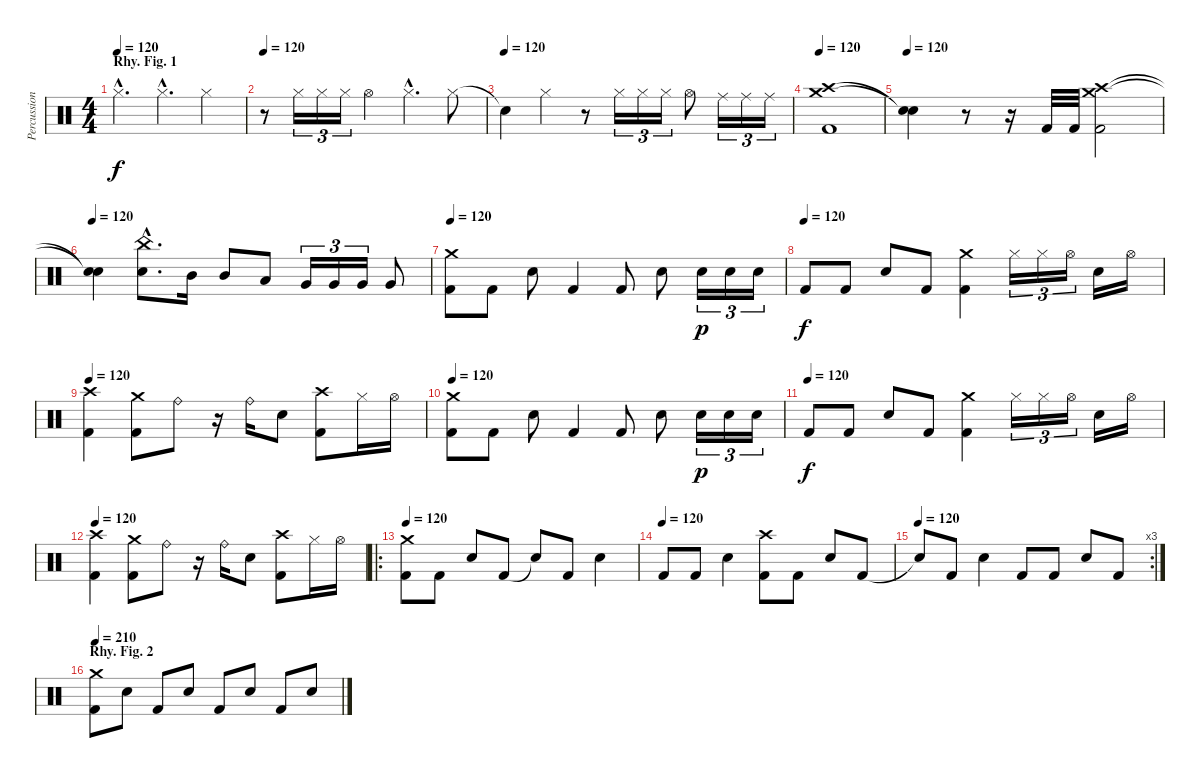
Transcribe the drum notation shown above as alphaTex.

\track ("Percussion" "Percussion") {instrument percussion}
\staff {score}
\articulation defaults
\ts (4 4)
\section ("" "Rhy. Fig. 1")
\tempo 120
\clef neutral
\ks c "Hi-Hat (closed)"{hac}.4{d dy f} "Hi-Hat (closed)"{hac}.4{d} "Hi-Hat (closed)".4
|
\tempo 120
r.8 "Hi-Hat (closed)".16{tu (3 2)} "Hi-Hat (closed)".16{tu (3 2)} "Hi-Hat (closed)".16{tu (3 2)} "Hi-Hat (open)".4 "Hi-Hat (closed)"{hac}.4{d} "Hi-Hat (closed)".8 |
\tempo (120)
"Snare (hit)"{t}.4 "Hi-Hat (closed)".4 r.8 "Hi-Hat (closed)".16{tu (3 2)} "Hi-Hat (closed)".16{tu (3 2)} "Hi-Hat (closed)".16{tu (3 2)} "Hi-Hat (open)".8 "Ride (middle)".16{tu (3 2)} "Ride (middle)".16{tu (3 2)} "Ride (middle)".16{tu (3 2)} |
\tempo 120
("Crash medium (hit)" "Crash high (hit)" "Kick (hit) 2").1 |
\tempo 120
("Snare (hit)"{t} "Snare (hit)"{t}).4 r.8 r.16 "Kick (hit) 2".32 "Kick (hit) 2".32 ("Crash medium (hit)" "Crash high (hit)" "Kick (hit) 2").2 |
\tempo 120
("Snare (hit)"{t} "Snare (hit)"{t}).4 ("China (hit)"{hac} "Snare (hit) 2"{hac}).8{d} "Mid Tom (hit)".16 "Mid Tom (hit)".8 "Low Tom (hit)".8 "Very Low Tom (hit)".16{tu (3 2)} "Very Low Tom (hit)".16{tu (3 2)} "Very Low Tom (hit)".16{tu (3 2)} "Very Low Tom (hit)".8 |
\tempo 120
("Crash medium (hit)" "Kick (hit) 2").8 "Kick (hit) 2".8 "Snare (hit) 2".8 "Kick (hit) 2".4 "Kick (hit) 2".8 "Snare (hit) 2".8 "Snare (hit) 2".16{tu (3 2) dy p} "Snare (hit) 2".16{tu (3 2)} "Snare (hit) 2".16{tu (3 2)} |
\tempo (120)
"Kick (hit) 2".8{dy f} "Kick (hit) 2".8 "Snare (hit) 2".8 "Kick (hit) 2".8 ("Crash medium (hit)" "Kick (hit) 2").4 "Hi-Hat (closed)".16{tu (3 2)} "Hi-Hat (closed)".16{tu (3 2)} "Hi-Hat (open)".16{tu (3 2)} "Snare (hit) 2".16 "Hi-Hat (open)".16 |
\tempo 120
("Crash high (hit)" "Kick (hit) 2").4 ("Crash medium (hit)" "Kick (hit) 2").8 "Ride (bell)".8 r.16 "Ride (bell)".16 "Snare (hit) 2".8 ("Crash high (hit)" "Kick (hit) 2").8 "Hi-Hat (closed)".16 "Hi-Hat (open)".16 |
\tempo 120
("Crash medium (hit)" "Kick (hit) 2").8 "Kick (hit) 2".8 "Snare (hit) 2".8 "Kick (hit) 2".4 "Kick (hit) 2".8 "Snare (hit) 2".8 "Snare (hit) 2".16{tu (3 2) dy p} "Snare (hit) 2".16{tu (3 2)} "Snare (hit) 2".16{tu (3 2)} |
\tempo (120)
"Kick (hit) 2".8{dy f} "Kick (hit) 2".8 "Snare (hit) 2".8 "Kick (hit) 2".8 ("Crash medium (hit)" "Kick (hit) 2").4 "Hi-Hat (closed)".16{tu (3 2)} "Hi-Hat (closed)".16{tu (3 2)} "Hi-Hat (open)".16{tu (3 2)} "Snare (hit) 2".16 "Hi-Hat (open)".16 |
\tempo 120
("Crash high (hit)" "Kick (hit) 2").4 ("Crash medium (hit)" "Kick (hit) 2").8 "Ride (bell)".8 r.16 "Ride (bell)".16 "Snare (hit) 2".8 ("Crash high (hit)" "Kick (hit) 2").8 "Hi-Hat (closed)".16 "Hi-Hat (open)".16 |
\ro
\tempo 120
("Crash medium (hit)" "Kick (hit) 2").8 "Kick (hit) 2".8 "Snare (hit) 2".8 "Kick (hit) 2".8 "Snare (hit)"{t}.8 "Kick (hit) 2".8 "Snare (hit) 2".4 |
\tempo (120)
"Kick (hit) 2".8 "Kick (hit) 2".8 "Snare (hit) 2".4 ("Crash high (hit)" "Kick (hit) 2").8 "Kick (hit) 2".8 "Snare (hit) 2".8 "Kick (hit) 2".8 |
\rc 3
\tempo (120)
"Snare (hit)"{t}.8 "Kick (hit) 2".8 "Snare (hit) 2".4 "Kick (hit) 2".8 "Kick (hit) 2".8 "Snare (hit) 2".8 "Kick (hit) 2".8 |
\section ("" "Rhy. Fig. 2")
\tempo 210
("Crash medium (hit)" "Kick (hit) 2").8 "Snare (hit) 2".8 "Kick (hit) 2".8 "Snare (hit) 2".8 "Kick (hit) 2".8 "Snare (hit) 2".8 "Kick (hit) 2".8 "Snare (hit) 2".8
